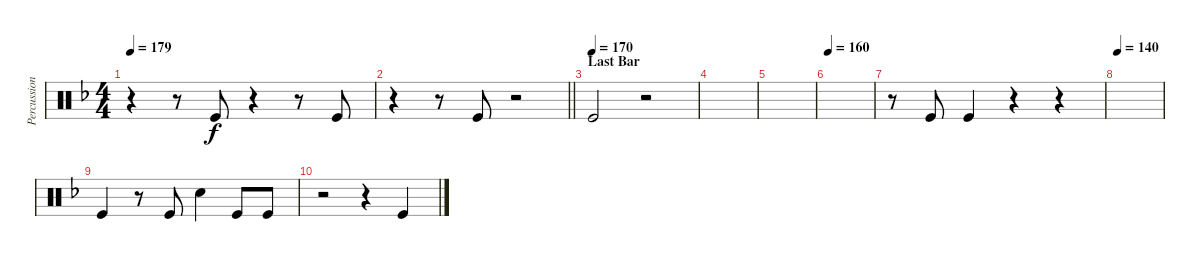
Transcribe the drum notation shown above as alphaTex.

\track ("Percussion 02" "Percussion") {instrument percussion}
\staff {score}
\articulation defaults
\ts (4 4)
\tempo 179
\clef neutral
\ks dminor
r.4{dy f} r.8 "Kick (hit)".8 r.4 r.8 "Kick (hit)".8 |
\barLineRight lightlight
r.4 r.8 "Kick (hit)".8 r.2 |
\section ("" "Last Bar")
\tempo (170)
"Kick (hit)".2 r.2 |
|
|
\tempo 160
|
r.8 "Kick (hit)".8 "Kick (hit)".4 r.4 r.4 |
\tempo 140
|
"Kick (hit)".4 r.8 "Kick (hit)".8 "Snare (hit) 2".4 "Kick (hit)".8 "Kick (hit)".8 |
r.2 r.4 "Kick (hit)".4
